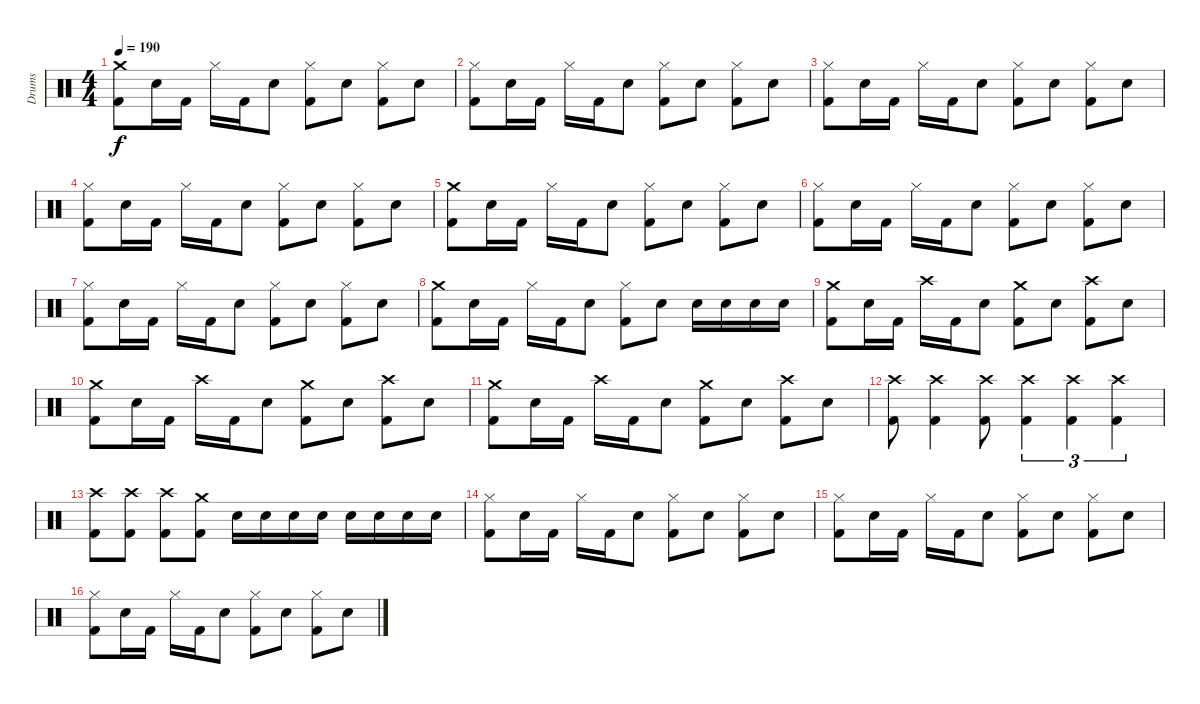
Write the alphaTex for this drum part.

\track ("Drums" "Drums") {instrument percussion}
\staff {score}
\articulation defaults
\ts (4 4)
\tempo 190
\clef neutral
\ks c
("Crash medium (hit)" "Kick (hit) 2").8{dy f} "Electric Snare (hit)".16 "Kick (hit) 2".16 "Hi-Hat (closed)".16 "Kick (hit) 2".16 "Electric Snare (hit)".8 ("Hi-Hat (closed)" "Kick (hit) 2").8 "Electric Snare (hit)".8 ("Hi-Hat (closed)" "Kick (hit) 2").8 "Electric Snare (hit)".8 |
("Hi-Hat (closed)" "Kick (hit) 2").8 "Electric Snare (hit)".16 "Kick (hit) 2".16 "Hi-Hat (closed)".16 "Kick (hit) 2".16 "Electric Snare (hit)".8 ("Hi-Hat (closed)" "Kick (hit) 2").8 "Electric Snare (hit)".8 ("Hi-Hat (closed)" "Kick (hit) 2").8 "Electric Snare (hit)".8 |
("Hi-Hat (closed)" "Kick (hit) 2").8 "Electric Snare (hit)".16 "Kick (hit) 2".16 "Hi-Hat (closed)".16 "Kick (hit) 2".16 "Electric Snare (hit)".8 ("Hi-Hat (closed)" "Kick (hit) 2").8 "Electric Snare (hit)".8 ("Hi-Hat (closed)" "Kick (hit) 2").8 "Electric Snare (hit)".8 |
("Hi-Hat (closed)" "Kick (hit) 2").8 "Electric Snare (hit)".16 "Kick (hit) 2".16 "Hi-Hat (closed)".16 "Kick (hit) 2".16 "Electric Snare (hit)".8 ("Hi-Hat (closed)" "Kick (hit) 2").8 "Electric Snare (hit)".8 ("Hi-Hat (closed)" "Kick (hit) 2").8 "Electric Snare (hit)".8 |
("Crash medium (hit)" "Kick (hit) 2").8 "Electric Snare (hit)".16 "Kick (hit) 2".16 "Hi-Hat (closed)".16 "Kick (hit) 2".16 "Electric Snare (hit)".8 ("Hi-Hat (closed)" "Kick (hit) 2").8 "Electric Snare (hit)".8 ("Hi-Hat (closed)" "Kick (hit) 2").8 "Electric Snare (hit)".8 |
("Hi-Hat (closed)" "Kick (hit) 2").8 "Electric Snare (hit)".16 "Kick (hit) 2".16 "Hi-Hat (closed)".16 "Kick (hit) 2".16 "Electric Snare (hit)".8 ("Hi-Hat (closed)" "Kick (hit) 2").8 "Electric Snare (hit)".8 ("Hi-Hat (closed)" "Kick (hit) 2").8 "Electric Snare (hit)".8 |
("Hi-Hat (closed)" "Kick (hit) 2").8 "Electric Snare (hit)".16 "Kick (hit) 2".16 "Hi-Hat (closed)".16 "Kick (hit) 2".16 "Electric Snare (hit)".8 ("Hi-Hat (closed)" "Kick (hit) 2").8 "Electric Snare (hit)".8 ("Hi-Hat (closed)" "Kick (hit) 2").8 "Electric Snare (hit)".8 |
("Crash medium (hit)" "Kick (hit) 2").8 "Electric Snare (hit)".16 "Kick (hit) 2".16 "Hi-Hat (closed)".16 "Kick (hit) 2".16 "Electric Snare (hit)".8 ("Hi-Hat (closed)" "Kick (hit) 2").8 "Electric Snare (hit)".8 "Electric Snare (hit)".16 "Electric Snare (hit)".16 "Electric Snare (hit)".16 "Electric Snare (hit)".16 |
("Crash medium (hit)" "Kick (hit) 2").8 "Electric Snare (hit)".16 "Kick (hit) 2".16 "Crash high (hit)".16 "Kick (hit) 2".16 "Electric Snare (hit)".8 ("Crash medium (hit)" "Kick (hit) 2").8 "Electric Snare (hit)".8 ("Crash high (hit)" "Kick (hit) 2").8 "Electric Snare (hit)".8 |
("Crash medium (hit)" "Kick (hit) 2").8 "Electric Snare (hit)".16 "Kick (hit) 2".16 "Crash high (hit)".16 "Kick (hit) 2".16 "Electric Snare (hit)".8 ("Crash medium (hit)" "Kick (hit) 2").8 "Electric Snare (hit)".8 ("Crash high (hit)" "Kick (hit) 2").8 "Electric Snare (hit)".8 |
("Crash medium (hit)" "Kick (hit) 2").8 "Electric Snare (hit)".16 "Kick (hit) 2".16 "Crash high (hit)".16 "Kick (hit) 2".16 "Electric Snare (hit)".8 ("Crash medium (hit)" "Kick (hit) 2").8 "Electric Snare (hit)".8 ("Crash high (hit)" "Kick (hit) 2").8 "Electric Snare (hit)".8 |
("Crash high (hit)" "Kick (hit) 2").8 ("Crash high (hit)" "Kick (hit) 2").4 ("Crash high (hit)" "Kick (hit) 2").8 ("Crash high (hit)" "Kick (hit) 2").4{tu (3 2)} ("Crash high (hit)" "Kick (hit) 2").4{tu (3 2)} ("Crash high (hit)" "Kick (hit) 2").4{tu (3 2)} |
("Crash high (hit)" "Kick (hit) 2").8 ("Crash high (hit)" "Kick (hit) 2").8 ("Crash high (hit)" "Kick (hit) 2").8 ("Crash medium (hit)" "Kick (hit) 2").8 "Electric Snare (hit)".16 "Electric Snare (hit)".16 "Electric Snare (hit)".16 "Electric Snare (hit)".16 "Electric Snare (hit)".16 "Electric Snare (hit)".16 "Electric Snare (hit)".16 "Electric Snare (hit)".16 |
("Hi-Hat (closed)" "Kick (hit) 2").8 "Electric Snare (hit)".16 "Kick (hit) 2".16 "Hi-Hat (closed)".16 "Kick (hit) 2".16 "Electric Snare (hit)".8 ("Hi-Hat (closed)" "Kick (hit) 2").8 "Electric Snare (hit)".8 ("Hi-Hat (closed)" "Kick (hit) 2").8 "Electric Snare (hit)".8 |
("Hi-Hat (closed)" "Kick (hit) 2").8 "Electric Snare (hit)".16 "Kick (hit) 2".16 "Hi-Hat (closed)".16 "Kick (hit) 2".16 "Electric Snare (hit)".8 ("Hi-Hat (closed)" "Kick (hit) 2").8 "Electric Snare (hit)".8 ("Hi-Hat (closed)" "Kick (hit) 2").8 "Electric Snare (hit)".8 |
("Hi-Hat (closed)" "Kick (hit) 2").8 "Electric Snare (hit)".16 "Kick (hit) 2".16 "Hi-Hat (closed)".16 "Kick (hit) 2".16 "Electric Snare (hit)".8 ("Hi-Hat (closed)" "Kick (hit) 2").8 "Electric Snare (hit)".8 ("Hi-Hat (closed)" "Kick (hit) 2").8 "Electric Snare (hit)".8
